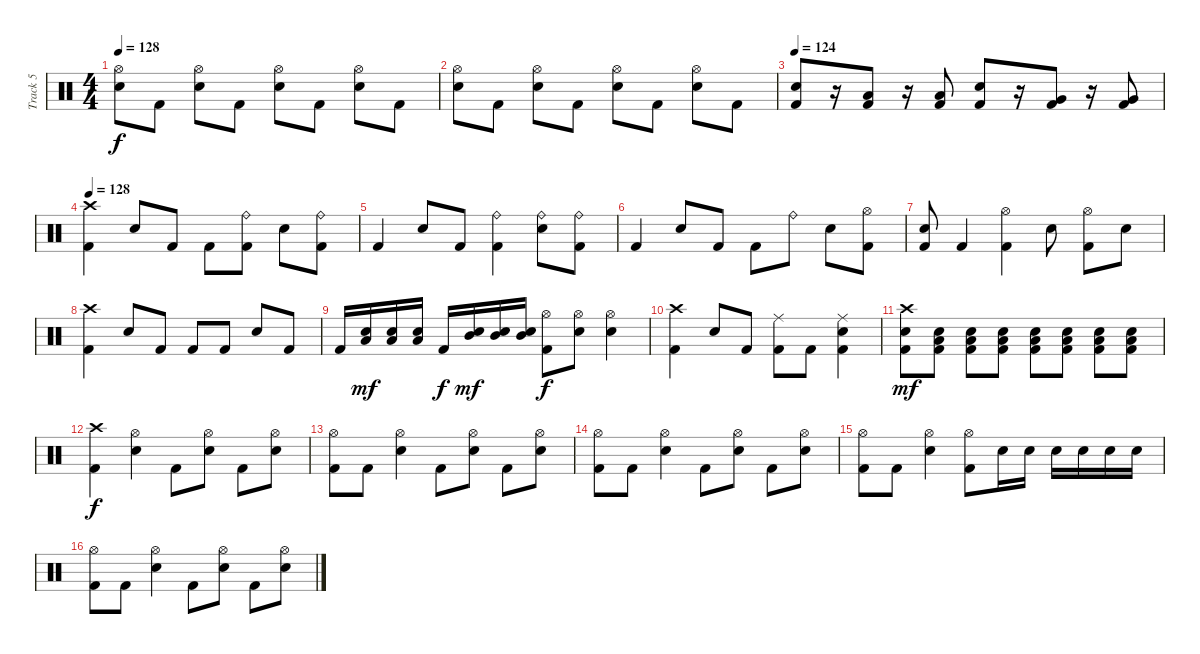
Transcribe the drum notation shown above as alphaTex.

\track ("Track 5" "Track 5") {instrument percussion}
\staff {score}
\articulation defaults
\ts (4 4)
\tempo 128
\clef neutral
\ks c
("Hi-Hat (open)" "Electric Snare (hit)").8{dy f} "Kick (hit) 2".8 ("Hi-Hat (open)" "Electric Snare (hit)").8 "Kick (hit) 2".8 ("Hi-Hat (open)" "Electric Snare (hit)").8 "Kick (hit) 2".8 ("Hi-Hat (open)" "Electric Snare (hit)").8 "Kick (hit) 2".8 |
("Hi-Hat (open)" "Electric Snare (hit)").8 "Kick (hit) 2".8 ("Hi-Hat (open)" "Electric Snare (hit)").8 "Kick (hit) 2".8 ("Hi-Hat (open)" "Electric Snare (hit)").8 "Kick (hit) 2".8 ("Hi-Hat (open)" "Electric Snare (hit)").8 "Kick (hit) 2".8 |
\tempo 124
("Electric Snare (hit)" "Kick (hit) 2").8 r.16 ("Low Tom (hit)" "Kick (hit) 2").8 r.16 ("Low Tom (hit)" "Kick (hit) 2").8 ("Electric Snare (hit)" "Kick (hit) 2").8 r.16 ("Very Low Tom (hit)" "Kick (hit) 2").8 r.16 ("Very Low Tom (hit)" "Kick (hit) 2").8 |
\tempo 128
("Crash high (hit)" "Kick (hit) 2").4 "Electric Snare (hit)".8 "Kick (hit) 2".8 "Kick (hit) 2".8 ("Ride (bell)" "Kick (hit) 2").8 "Electric Snare (hit)".8 ("Ride (bell)" "Kick (hit) 2").8 |
"Kick (hit) 2".4 "Electric Snare (hit)".8 "Kick (hit) 2".8 ("Ride (bell)" "Kick (hit) 2").4 ("Ride (bell)" "Electric Snare (hit)").8 ("Ride (bell)" "Kick (hit) 2").8 |
"Kick (hit) 2".4 "Electric Snare (hit)".8 "Kick (hit) 2".8 "Kick (hit) 2".8 "Ride (bell)".8 "Electric Snare (hit)".8 ("Hi-Hat (open)" "Kick (hit) 2").8 |
("Electric Snare (hit)" "Kick (hit) 2").8 "Kick (hit) 2".4 ("Hi-Hat (open)" "Kick (hit) 2").4 "Electric Snare (hit)".8 ("Hi-Hat (open)" "Kick (hit) 2").8 "Electric Snare (hit)".8 |
("Crash high (hit)" "Kick (hit) 2").4 "Electric Snare (hit)".8 "Kick (hit) 2".8 "Kick (hit) 2".8 "Kick (hit) 2".8 "Electric Snare (hit)".8 "Kick (hit) 2".8 |
"Kick (hit) 2".16 ("Electric Snare (hit)" "Low Tom (hit)").16{dy mf} ("Electric Snare (hit)" "Low Tom (hit)").16 ("Electric Snare (hit)" "Low Tom (hit)").16 "Kick (hit) 2".16{dy f} ("Electric Snare (hit)" "Mid Tom (hit)").16{dy mf} ("Electric Snare (hit)" "Mid Tom (hit)").16 ("Electric Snare (hit)" "Mid Tom (hit)").16 ("Hi-Hat (open)" "Kick (hit) 2").8{dy f} ("Hi-Hat (open)" "Electric Snare (hit)").8 ("Hi-Hat (open)" "Electric Snare (hit)").4 |
("Crash high (hit)" "Kick (hit) 2").4 "Electric Snare (hit)".8 "Kick (hit) 2".8 ("Ride (middle)" "Kick (hit) 2").8 "Kick (hit) 2".8 ("Ride (middle)" "Electric Snare (hit)" "Kick (hit) 2").4 |
("Crash high (hit)" "Electric Snare (hit)" "Kick (hit) 2").8{dy mf} ("Electric Snare (hit)" "Low Tom (hit)" "Kick (hit) 2").8 ("Electric Snare (hit)" "Low Tom (hit)" "Kick (hit) 2").8 ("Electric Snare (hit)" "Low Tom (hit)" "Kick (hit) 2").8 ("Electric Snare (hit)" "Low Tom (hit)" "Kick (hit) 2").8 ("Electric Snare (hit)" "Low Tom (hit)" "Kick (hit) 2").8 ("Electric Snare (hit)" "Low Tom (hit)" "Kick (hit) 2").8 ("Electric Snare (hit)" "Low Tom (hit)" "Kick (hit) 2").8 |
("Crash high (hit)" "Kick (hit) 2").4{dy f} ("Hi-Hat (open)" "Electric Snare (hit)").4 "Kick (hit) 2".8 ("Hi-Hat (open)" "Electric Snare (hit)").8 "Kick (hit) 2".8 ("Hi-Hat (open)" "Electric Snare (hit)").8 |
("Hi-Hat (open)" "Kick (hit) 2").8 "Kick (hit) 2".8 ("Hi-Hat (open)" "Electric Snare (hit)").4 "Kick (hit) 2".8 ("Hi-Hat (open)" "Electric Snare (hit)").8 "Kick (hit) 2".8 ("Hi-Hat (open)" "Electric Snare (hit)").8 |
("Hi-Hat (open)" "Kick (hit) 2").8 "Kick (hit) 2".8 ("Hi-Hat (open)" "Electric Snare (hit)").4 "Kick (hit) 2".8 ("Hi-Hat (open)" "Electric Snare (hit)").8 "Kick (hit) 2".8 ("Hi-Hat (open)" "Electric Snare (hit)").8 |
("Hi-Hat (open)" "Kick (hit) 2").8 "Kick (hit) 2".8 ("Hi-Hat (open)" "Electric Snare (hit)").4 ("Hi-Hat (open)" "Kick (hit) 2").8 "Electric Snare (hit)".16 "Electric Snare (hit)".16 "Electric Snare (hit)".16 "Electric Snare (hit)".16 "Electric Snare (hit)".16 "Electric Snare (hit)".16 |
("Hi-Hat (open)" "Kick (hit) 2").8 "Kick (hit) 2".8 ("Hi-Hat (open)" "Electric Snare (hit)").4 "Kick (hit) 2".8 ("Hi-Hat (open)" "Electric Snare (hit)").8 "Kick (hit) 2".8 ("Hi-Hat (open)" "Electric Snare (hit)").8
